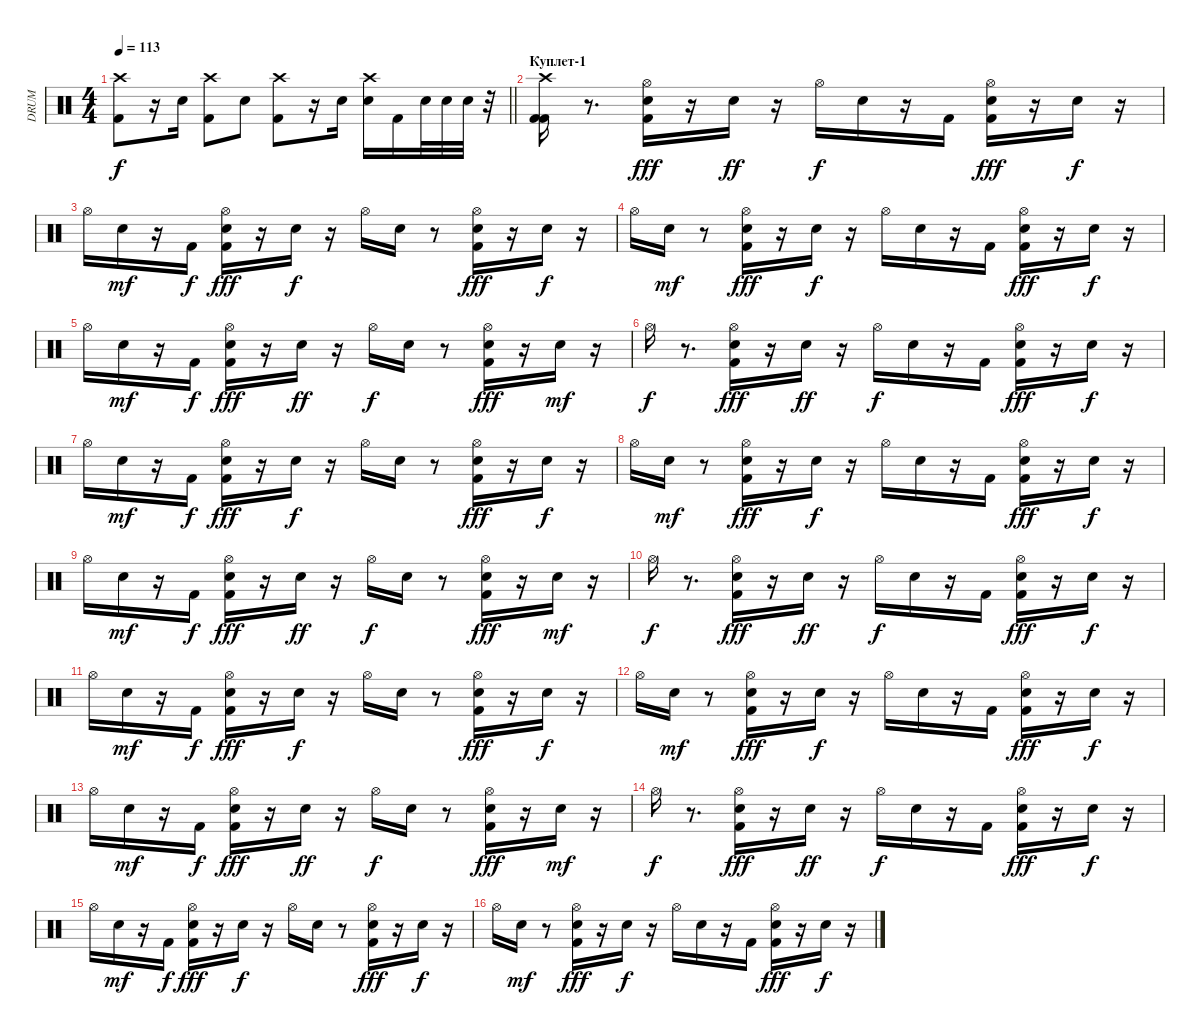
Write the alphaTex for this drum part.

\track ("DRUM" "DRUM") {instrument percussion}
\staff {score}
\articulation defaults
\ts (4 4)
\tempo 113
\clef neutral
\barLineRight lightlight
\ks c
("Kick (hit) 2" "Crash high (hit)").8{dy f} r.16 "Electric Snare (hit)".16 ("Kick (hit) 2" "Crash high (hit)").8 "Electric Snare (hit)".8 ("Kick (hit) 2" "Crash high (hit)").8 r.16 "Electric Snare (hit)".16 ("Electric Snare (hit)" "Crash high (hit)").16 "Kick (hit) 2".16 "Electric Snare (hit)".32 "Electric Snare (hit)".32 "Electric Snare (hit)".32 r.32 |
\section ("" "Куплет-1")
("Kick (hit) 2" "Crash high (hit)" "Kick (hit) 2").16 r.8{d} ("Electric Snare (hit)" "Hi-Hat (open)" "Kick (hit) 2").16{dy fff} r.16 "Electric Snare (hit)".16{dy ff} r.16 "Hi-Hat (open)".16{dy f} "Electric Snare (hit)".16 r.16 "Kick (hit) 2".16 ("Hi-Hat (open)" "Electric Snare (hit)" "Kick (hit) 2").16{dy fff} r.16 "Electric Snare (hit)".16{dy f} r.16 |
"Hi-Hat (open)".16 "Electric Snare (hit)".16{dy mf} r.16 "Kick (hit) 2".16{dy f} ("Kick (hit) 2" "Hi-Hat (open)" "Electric Snare (hit)").16{dy fff} r.16 "Electric Snare (hit)".16{dy f} r.16 "Hi-Hat (open)".16 "Electric Snare (hit)".16 r.8 ("Electric Snare (hit)" "Kick (hit) 2" "Hi-Hat (open)").16{dy fff} r.16 "Electric Snare (hit)".16{dy f} r.16 |
"Hi-Hat (open)".16 "Electric Snare (hit)".16{dy mf} r.8 ("Electric Snare (hit)" "Hi-Hat (open)" "Kick (hit) 2").16{dy fff} r.16 "Electric Snare (hit)".16{dy f} r.16 "Hi-Hat (open)".16 "Electric Snare (hit)".16 r.16 "Kick (hit) 2".16 ("Hi-Hat (open)" "Kick (hit) 2" "Electric Snare (hit)").16{dy fff} r.16 "Electric Snare (hit)".16{dy f} r.16 |
"Hi-Hat (open)".16 "Electric Snare (hit)".16{dy mf} r.16 "Kick (hit) 2".16{dy f} ("Hi-Hat (open)" "Kick (hit) 2" "Electric Snare (hit)").16{dy fff} r.16 "Electric Snare (hit)".16{dy ff} r.16 "Hi-Hat (open)".16{dy f} "Electric Snare (hit)".16 r.8 ("Kick (hit) 2" "Hi-Hat (open)" "Electric Snare (hit)").16{dy fff} r.16 "Electric Snare (hit)".16{dy mf} r.16 |
"Hi-Hat (open)".16{dy f} r.8{d} ("Electric Snare (hit)" "Hi-Hat (open)" "Kick (hit) 2").16{dy fff} r.16 "Electric Snare (hit)".16{dy ff} r.16 "Hi-Hat (open)".16{dy f} "Electric Snare (hit)".16 r.16 "Kick (hit) 2".16 ("Kick (hit) 2" "Electric Snare (hit)" "Hi-Hat (open)").16{dy fff} r.16 "Electric Snare (hit)".16{dy f} r.16 |
"Hi-Hat (open)".16 "Electric Snare (hit)".16{dy mf} r.16 "Kick (hit) 2".16{dy f} ("Kick (hit) 2" "Hi-Hat (open)" "Electric Snare (hit)").16{dy fff} r.16 "Electric Snare (hit)".16{dy f} r.16 "Hi-Hat (open)".16 "Electric Snare (hit)".16 r.8 ("Hi-Hat (open)" "Kick (hit) 2" "Electric Snare (hit)").16{dy fff} r.16 "Electric Snare (hit)".16{dy f} r.16 |
"Hi-Hat (open)".16 "Electric Snare (hit)".16{dy mf} r.8 ("Electric Snare (hit)" "Hi-Hat (open)" "Kick (hit) 2").16{dy fff} r.16 "Electric Snare (hit)".16{dy f} r.16 "Hi-Hat (open)".16 "Electric Snare (hit)".16 r.16 "Kick (hit) 2".16 ("Hi-Hat (open)" "Kick (hit) 2" "Electric Snare (hit)").16{dy fff} r.16 "Electric Snare (hit)".16{dy f} r.16 |
"Hi-Hat (open)".16 "Electric Snare (hit)".16{dy mf} r.16 "Kick (hit) 2".16{dy f} ("Electric Snare (hit)" "Kick (hit) 2" "Hi-Hat (open)").16{dy fff} r.16 "Electric Snare (hit)".16{dy ff} r.16 "Hi-Hat (open)".16{dy f} "Electric Snare (hit)".16 r.8 ("Kick (hit) 2" "Hi-Hat (open)" "Electric Snare (hit)").16{dy fff} r.16 "Electric Snare (hit)".16{dy mf} r.16 |
"Hi-Hat (open)".16{dy f} r.8{d} ("Electric Snare (hit)" "Hi-Hat (open)" "Kick (hit) 2").16{dy fff} r.16 "Electric Snare (hit)".16{dy ff} r.16 "Hi-Hat (open)".16{dy f} "Electric Snare (hit)".16 r.16 "Kick (hit) 2".16 ("Kick (hit) 2" "Electric Snare (hit)" "Hi-Hat (open)").16{dy fff} r.16 "Electric Snare (hit)".16{dy f} r.16 |
"Hi-Hat (open)".16 "Electric Snare (hit)".16{dy mf} r.16 "Kick (hit) 2".16{dy f} ("Kick (hit) 2" "Hi-Hat (open)" "Electric Snare (hit)").16{dy fff} r.16 "Electric Snare (hit)".16{dy f} r.16 "Hi-Hat (open)".16 "Electric Snare (hit)".16 r.8 ("Hi-Hat (open)" "Kick (hit) 2" "Electric Snare (hit)").16{dy fff} r.16 "Electric Snare (hit)".16{dy f} r.16 |
"Hi-Hat (open)".16 "Electric Snare (hit)".16{dy mf} r.8 ("Kick (hit) 2" "Hi-Hat (open)" "Electric Snare (hit)").16{dy fff} r.16 "Electric Snare (hit)".16{dy f} r.16 "Hi-Hat (open)".16 "Electric Snare (hit)".16 r.16 "Kick (hit) 2".16 ("Hi-Hat (open)" "Kick (hit) 2" "Electric Snare (hit)").16{dy fff} r.16 "Electric Snare (hit)".16{dy f} r.16 |
"Hi-Hat (open)".16 "Electric Snare (hit)".16{dy mf} r.16 "Kick (hit) 2".16{dy f} ("Electric Snare (hit)" "Kick (hit) 2" "Hi-Hat (open)").16{dy fff} r.16 "Electric Snare (hit)".16{dy ff} r.16 "Hi-Hat (open)".16{dy f} "Electric Snare (hit)".16 r.8 ("Electric Snare (hit)" "Hi-Hat (open)" "Kick (hit) 2").16{dy fff} r.16 "Electric Snare (hit)".16{dy mf} r.16 |
"Hi-Hat (open)".16{dy f} r.8{d} ("Electric Snare (hit)" "Hi-Hat (open)" "Kick (hit) 2").16{dy fff} r.16 "Electric Snare (hit)".16{dy ff} r.16 "Hi-Hat (open)".16{dy f} "Electric Snare (hit)".16 r.16 "Kick (hit) 2".16 ("Kick (hit) 2" "Electric Snare (hit)" "Hi-Hat (open)").16{dy fff} r.16 "Electric Snare (hit)".16{dy f} r.16 |
"Hi-Hat (open)".16 "Electric Snare (hit)".16{dy mf} r.16 "Kick (hit) 2".16{dy f} ("Electric Snare (hit)" "Hi-Hat (open)" "Kick (hit) 2").16{dy fff} r.16 "Electric Snare (hit)".16{dy f} r.16 "Hi-Hat (open)".16 "Electric Snare (hit)".16 r.8 ("Hi-Hat (open)" "Kick (hit) 2" "Electric Snare (hit)").16{dy fff} r.16 "Electric Snare (hit)".16{dy f} r.16 |
"Hi-Hat (open)".16 "Electric Snare (hit)".16{dy mf} r.8 ("Electric Snare (hit)" "Hi-Hat (open)" "Kick (hit) 2").16{dy fff} r.16 "Electric Snare (hit)".16{dy f} r.16 "Hi-Hat (open)".16 "Electric Snare (hit)".16 r.16 "Kick (hit) 2".16 ("Electric Snare (hit)" "Kick (hit) 2" "Hi-Hat (open)").16{dy fff} r.16 "Electric Snare (hit)".16{dy f} r.16
